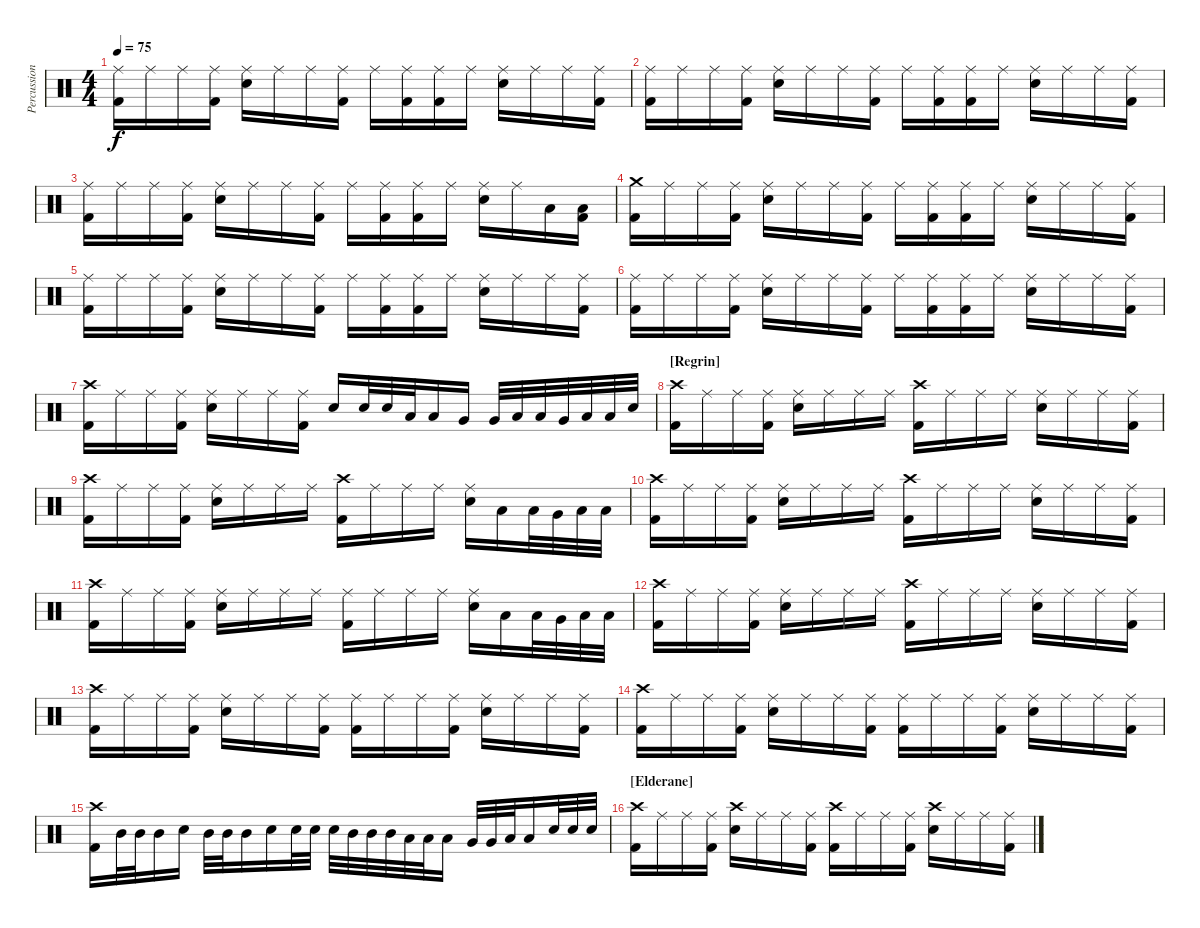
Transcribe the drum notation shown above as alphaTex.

\track ("Percussions" "Percussion") {instrument percussion}
\staff {score}
\articulation defaults
\ts (4 4)
\tempo 75
\clef neutral
\ks c
("Ride (middle)" "Kick (hit) 2").16{dy f} "Ride (middle)".16 "Ride (middle)".16 ("Ride (middle)" "Kick (hit) 2").16 ("Ride (middle)" "Snare (hit) 2").16 "Ride (middle)".16 "Ride (middle)".16 ("Ride (middle)" "Kick (hit) 2").16 "Ride (middle)".16 ("Ride (middle)" "Kick (hit) 2").16 ("Ride (middle)" "Kick (hit) 2").16 "Ride (middle)".16 ("Ride (middle)" "Snare (hit) 2").16 "Ride (middle)".16 "Ride (middle)".16 ("Ride (middle)" "Kick (hit) 2").16 |
("Ride (middle)" "Kick (hit) 2").16 "Ride (middle)".16 "Ride (middle)".16 ("Ride (middle)" "Kick (hit) 2").16 ("Ride (middle)" "Snare (hit) 2").16 "Ride (middle)".16 "Ride (middle)".16 ("Ride (middle)" "Kick (hit) 2").16 "Ride (middle)".16 ("Ride (middle)" "Kick (hit) 2").16 ("Ride (middle)" "Kick (hit) 2").16 "Ride (middle)".16 ("Ride (middle)" "Snare (hit) 2").16 "Ride (middle)".16 "Ride (middle)".16 ("Ride (middle)" "Kick (hit) 2").16 |
("Ride (middle)" "Kick (hit) 2").16 "Ride (middle)".16 "Ride (middle)".16 ("Ride (middle)" "Kick (hit) 2").16 ("Ride (middle)" "Snare (hit) 2").16 "Ride (middle)".16 "Ride (middle)".16 ("Ride (middle)" "Kick (hit) 2").16 "Ride (middle)".16 ("Ride (middle)" "Kick (hit) 2").16 ("Ride (middle)" "Kick (hit) 2").16 "Ride (middle)".16 ("Ride (middle)" "Snare (hit) 2").16 "Ride (middle)".16 "Low Floor Tom (hit)".16 ("Low Floor Tom (hit)" "Kick (hit) 2").16 |
("Crash medium (hit)" "Kick (hit) 2").16 "Ride (middle)".16 "Ride (middle)".16 ("Ride (middle)" "Kick (hit) 2").16 ("Ride (middle)" "Snare (hit) 2").16 "Ride (middle)".16 "Ride (middle)".16 ("Ride (middle)" "Kick (hit) 2").16 "Ride (middle)".16 ("Ride (middle)" "Kick (hit) 2").16 ("Ride (middle)" "Kick (hit) 2").16 "Ride (middle)".16 ("Ride (middle)" "Snare (hit) 2").16 "Ride (middle)".16 "Ride (middle)".16 ("Ride (middle)" "Kick (hit) 2").16 |
("Ride (middle)" "Kick (hit) 2").16 "Ride (middle)".16 "Ride (middle)".16 ("Ride (middle)" "Kick (hit) 2").16 ("Ride (middle)" "Snare (hit) 2").16 "Ride (middle)".16 "Ride (middle)".16 ("Ride (middle)" "Kick (hit) 2").16 "Ride (middle)".16 ("Ride (middle)" "Kick (hit) 2").16 ("Ride (middle)" "Kick (hit) 2").16 "Ride (middle)".16 ("Ride (middle)" "Snare (hit) 2").16 "Ride (middle)".16 "Ride (middle)".16 ("Ride (middle)" "Kick (hit) 2").16 |
("Ride (middle)" "Kick (hit) 2").16 "Ride (middle)".16 "Ride (middle)".16 ("Ride (middle)" "Kick (hit) 2").16 ("Ride (middle)" "Snare (hit) 2").16 "Ride (middle)".16 "Ride (middle)".16 ("Ride (middle)" "Kick (hit) 2").16 "Ride (middle)".16 ("Ride (middle)" "Kick (hit) 2").16 ("Ride (middle)" "Kick (hit) 2").16 "Ride (middle)".16 ("Ride (middle)" "Snare (hit) 2").16 "Ride (middle)".16 "Ride (middle)".16 ("Ride (middle)" "Kick (hit) 2").16 |
("Crash high (hit)" "Kick (hit) 2").16 "Ride (middle)".16 "Ride (middle)".16 ("Ride (middle)" "Kick (hit) 2").16 ("Ride (middle)" "Snare (hit) 2").16 "Ride (middle)".16 "Ride (middle)".16 ("Ride (middle)" "Kick (hit) 2").16 "Electric Snare (hit)".16 "Electric Snare (hit)".32 "Electric Snare (hit)".32 "Low Tom (hit)".32 "Low Tom (hit)".16 "Very Low Tom (hit)".16 "Very Low Tom (hit)".32 "Low Tom (hit)".32 "Low Tom (hit)".32 "Very Low Tom (hit)".32 "Low Floor Tom (hit)".32 "Low Floor Tom (hit)".32 "Electric Snare (hit)".32 |
\section ("" "[Regrin]")
("Crash high (hit)" "Kick (hit) 2").16 "Ride (middle)".16 "Ride (middle)".16 ("Ride (middle)" "Kick (hit) 2").16 ("Ride (middle)" "Electric Snare (hit)").16 "Ride (middle)".16 "Ride (middle)".16 "Ride (middle)".16 ("Crash high (hit)" "Kick (hit) 2").16 "Ride (middle)".16 "Ride (middle)".16 "Ride (middle)".16 ("Ride (middle)" "Electric Snare (hit)").16 "Ride (middle)".16 "Ride (middle)".16 ("Ride (middle)" "Kick (hit) 2").16 |
("Crash high (hit)" "Kick (hit) 2").16 "Ride (middle)".16 "Ride (middle)".16 ("Ride (middle)" "Kick (hit) 2").16 ("Ride (middle)" "Electric Snare (hit)").16 "Ride (middle)".16 "Ride (middle)".16 "Ride (middle)".16 ("Crash high (hit)" "Kick (hit) 2").16 "Ride (middle)".16 "Ride (middle)".16 "Ride (middle)".16 ("Ride (middle)" "Electric Snare (hit)").16 "Low Tom (hit)".16 "Low Tom (hit)".32 "Very Low Tom (hit)".32 "Low Floor Tom (hit)".32 "Low Floor Tom (hit)".32 |
("Crash high (hit)" "Kick (hit) 2").16 "Ride (middle)".16 "Ride (middle)".16 ("Ride (middle)" "Kick (hit) 2").16 ("Ride (middle)" "Electric Snare (hit)").16 "Ride (middle)".16 "Ride (middle)".16 "Ride (middle)".16 ("Crash high (hit)" "Kick (hit) 2").16 "Ride (middle)".16 "Ride (middle)".16 "Ride (middle)".16 ("Ride (middle)" "Electric Snare (hit)").16 "Ride (middle)".16 "Ride (middle)".16 ("Ride (middle)" "Kick (hit) 2").16 |
("Crash high (hit)" "Kick (hit) 2").16 "Ride (middle)".16 "Ride (middle)".16 ("Ride (middle)" "Kick (hit) 2").16 ("Ride (middle)" "Electric Snare (hit)").16 "Ride (middle)".16 "Ride (middle)".16 "Ride (middle)".16 ("Ride (middle)" "Kick (hit) 2").16 "Ride (middle)".16 "Ride (middle)".16 "Ride (middle)".16 ("Ride (middle)" "Electric Snare (hit)").16 "Low Tom (hit)".16 "Low Tom (hit)".32 "Very Low Tom (hit)".32 "Low Floor Tom (hit)".32 "Low Floor Tom (hit)".32 |
("Crash high (hit)" "Kick (hit) 2").16 "Ride (middle)".16 "Ride (middle)".16 ("Ride (middle)" "Kick (hit) 2").16 ("Ride (middle)" "Electric Snare (hit)").16 "Ride (middle)".16 "Ride (middle)".16 "Ride (middle)".16 ("Crash high (hit)" "Kick (hit) 2").16 "Ride (middle)".16 "Ride (middle)".16 "Ride (middle)".16 ("Ride (middle)" "Electric Snare (hit)").16 "Ride (middle)".16 "Ride (middle)".16 ("Ride (middle)" "Kick (hit) 2").16 |
("Crash high (hit)" "Kick (hit) 2").16 "Ride (middle)".16 "Ride (middle)".16 ("Ride (middle)" "Kick (hit) 2").16 ("Ride (middle)" "Electric Snare (hit)").16 "Ride (middle)".16 "Ride (middle)".16 ("Ride (middle)" "Kick (hit) 2").16 ("Ride (middle)" "Kick (hit) 2").16 "Ride (middle)".16 "Ride (middle)".16 ("Ride (middle)" "Kick (hit) 2").16 ("Ride (middle)" "Electric Snare (hit)").16 "Ride (middle)".16 "Ride (middle)".16 ("Ride (middle)" "Kick (hit) 2").16 |
("Crash high (hit)" "Kick (hit) 2").16 "Ride (middle)".16 "Ride (middle)".16 ("Ride (middle)" "Kick (hit) 2").16 ("Ride (middle)" "Electric Snare (hit)").16 "Ride (middle)".16 "Ride (middle)".16 ("Ride (middle)" "Kick (hit) 2").16 ("Ride (middle)" "Kick (hit) 2").16 "Ride (middle)".16 "Ride (middle)".16 ("Ride (middle)" "Kick (hit) 2").16 ("Ride (middle)" "Electric Snare (hit)").16 "Ride (middle)".16 "Ride (middle)".16 ("Ride (middle)" "Kick (hit) 2").16 |
("Crash high (hit)" "Kick (hit) 2").16 "Mid Tom (hit)".32 "Mid Tom (hit)".32 "Mid Tom (hit)".16 "Electric Snare (hit)".16 "Mid Tom (hit)".32 "Mid Tom (hit)".32 "Mid Tom (hit)".16 "Electric Snare (hit)".16 "Electric Snare (hit)".32 "Electric Snare (hit)".32 "Electric Snare (hit)".32 "Mid Tom (hit)".32 "Mid Tom (hit)".32 "Mid Tom (hit)".32 "Low Tom (hit)".32 "Low Tom (hit)".32 "Low Tom (hit)".16 "Very Low Tom (hit)".32 "Very Low Tom (hit)".32 "Low Floor Tom (hit)".32 "Low Floor Tom (hit)".16 "Electric Snare (hit)".32 "Electric Snare (hit)".32 "Electric Snare (hit)".32 |
\section ("" "[Elderane]")
("Crash high (hit)" "Kick (hit) 2").16 "Ride (middle)".16 "Ride (middle)".16 ("Ride (middle)" "Kick (hit) 2").16 ("Crash high (hit)" "Electric Snare (hit)").16 "Ride (middle)".16 "Ride (middle)".16 ("Ride (middle)" "Kick (hit) 2").16 ("Crash high (hit)" "Kick (hit) 2").16 "Ride (middle)".16 "Ride (middle)".16 ("Ride (middle)" "Kick (hit) 2").16 ("Crash high (hit)" "Electric Snare (hit)").16 "Ride (middle)".16 "Ride (middle)".16 ("Ride (middle)" "Kick (hit) 2").16
